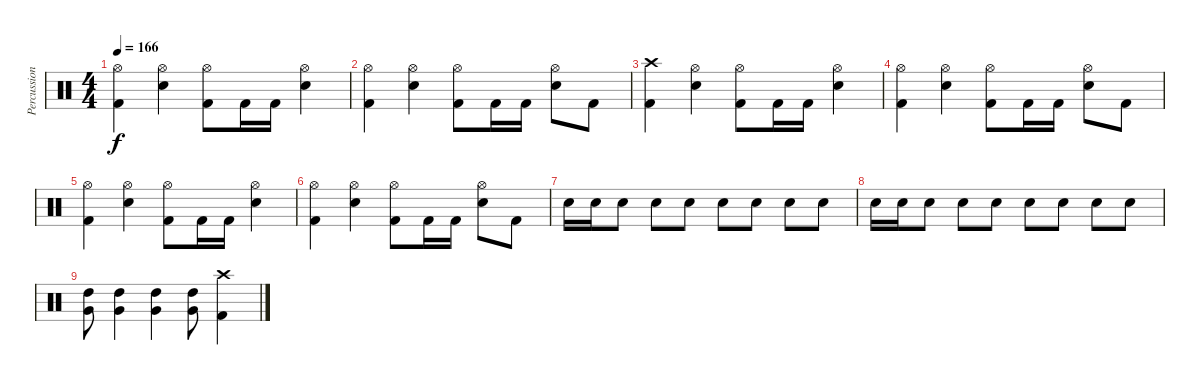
\track ("Percussion" "Percussion") {solo instrument percussion}
\staff {score}
\articulation defaults
\ts (4 4)
\tempo 166
\clef neutral
\ks c
("Hi-Hat (open)" "Kick (hit) 2").4{dy f} ("Snare (hit) 2" "Hi-Hat (open)").4 ("Hi-Hat (open)" "Kick (hit) 2").8 "Kick (hit) 2".16 "Kick (hit) 2".16 ("Hi-Hat (open)" "Snare (hit) 2").4 |
("Hi-Hat (open)" "Kick (hit) 2").4 ("Snare (hit) 2" "Hi-Hat (open)").4 ("Hi-Hat (open)" "Kick (hit) 2").8 "Kick (hit) 2".16 "Kick (hit) 2".16 ("Hi-Hat (open)" "Snare (hit) 2").8 "Kick (hit) 2".8 |
("Crash high (hit)" "Kick (hit) 2").4 ("Snare (hit) 2" "Hi-Hat (open)").4 ("Hi-Hat (open)" "Kick (hit) 2").8 "Kick (hit) 2".16 "Kick (hit) 2".16 ("Snare (hit) 2" "Hi-Hat (open)").4 |
("Hi-Hat (open)" "Kick (hit) 2").4 ("Snare (hit) 2" "Hi-Hat (open)").4 ("Hi-Hat (open)" "Kick (hit) 2").8 "Kick (hit) 2".16 "Kick (hit) 2".16 ("Hi-Hat (open)" "Snare (hit) 2").8 "Kick (hit) 2".8 |
("Hi-Hat (open)" "Kick (hit) 2").4 ("Snare (hit) 2" "Hi-Hat (open)").4 ("Hi-Hat (open)" "Kick (hit) 2").8 "Kick (hit) 2".16 "Kick (hit) 2".16 ("Hi-Hat (open)" "Snare (hit) 2").4 |
("Hi-Hat (open)" "Kick (hit) 2").4 ("Snare (hit) 2" "Hi-Hat (open)").4 ("Hi-Hat (open)" "Kick (hit) 2").8 "Kick (hit) 2".16 "Kick (hit) 2".16 ("Hi-Hat (open)" "Snare (hit) 2").8 "Kick (hit) 2".8 |
\ks aminor "Snare (hit) 2".16 "Snare (hit) 2".16 "Snare (hit) 2".8 "Snare (hit) 2".8 "Snare (hit) 2".8 "Snare (hit) 2".8 "Snare (hit) 2".8 "Snare (hit) 2".8 "Snare (hit) 2".8
|
"Snare (hit) 2".16 "Snare (hit) 2".16 "Snare (hit) 2".8 "Snare (hit) 2".8 "Snare (hit) 2".8 "Snare (hit) 2".8 "Snare (hit) 2".8 "Snare (hit) 2".8 "Snare (hit) 2".8 |
("High Tom (hit)" "Very Low Tom (hit)").8 ("High Tom (hit)" "Very Low Tom (hit)").4 ("High Tom (hit)" "Very Low Tom (hit)").4 ("High Tom (hit)" "Very Low Tom (hit)").8 ("Crash high (hit)" "Kick (hit) 2").4
